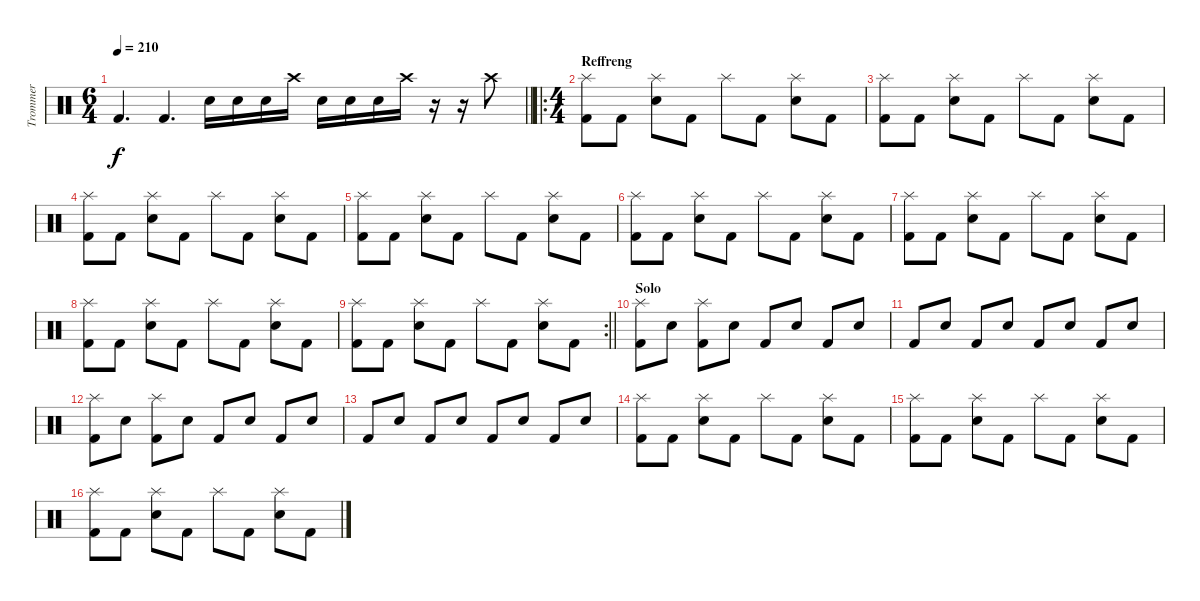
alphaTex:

\track ("Trommer" "Trommer") {instrument percussion}
\staff {score}
\articulation defaults
\ts (6 4)
\tempo 210
\clef neutral
\barLineRight lightlight
\ks c "Kick (hit) 2".4{d dy f} "Kick (hit) 2".4{d} "Snare (hit) 2".16 "Snare (hit) 2".16 "Snare (hit) 2".16 "Crash high (hit)".16 "Snare (hit) 2".16 "Snare (hit) 2".16 "Snare (hit) 2".16 "Crash high (hit)".16
r.16 r.16 "Crash high (hit)".8 |
\ro
\ts (4 4)
\section ("" "Reffreng")
("Splash (hit)" "Kick (hit) 2").8 "Kick (hit) 2".8 ("Splash (hit)" "Snare (hit) 2").8 "Kick (hit) 2".8 "Splash (hit)".8 "Kick (hit) 2".8 ("Splash (hit)" "Snare (hit) 2").8 "Kick (hit) 2".8 |
("Splash (hit)" "Kick (hit) 2").8 "Kick (hit) 2".8 ("Splash (hit)" "Snare (hit) 2").8 "Kick (hit) 2".8 "Splash (hit)".8 "Kick (hit) 2".8 ("Splash (hit)" "Snare (hit) 2").8 "Kick (hit) 2".8 |
("Splash (hit)" "Kick (hit) 2").8 "Kick (hit) 2".8 ("Splash (hit)" "Snare (hit) 2").8 "Kick (hit) 2".8 "Splash (hit)".8 "Kick (hit) 2".8 ("Splash (hit)" "Snare (hit) 2").8 "Kick (hit) 2".8 |
("Splash (hit)" "Kick (hit) 2").8 "Kick (hit) 2".8 ("Splash (hit)" "Snare (hit) 2").8 "Kick (hit) 2".8 "Splash (hit)".8 "Kick (hit) 2".8 ("Splash (hit)" "Snare (hit) 2").8 "Kick (hit) 2".8 |
("Splash (hit)" "Kick (hit) 2").8 "Kick (hit) 2".8 ("Splash (hit)" "Snare (hit) 2").8 "Kick (hit) 2".8 "Splash (hit)".8 "Kick (hit) 2".8 ("Splash (hit)" "Snare (hit) 2").8 "Kick (hit) 2".8 |
("Splash (hit)" "Kick (hit) 2").8 "Kick (hit) 2".8 ("Splash (hit)" "Snare (hit) 2").8 "Kick (hit) 2".8 "Splash (hit)".8 "Kick (hit) 2".8 ("Splash (hit)" "Snare (hit) 2").8 "Kick (hit) 2".8 |
("Splash (hit)" "Kick (hit) 2").8 "Kick (hit) 2".8 ("Splash (hit)" "Snare (hit) 2").8 "Kick (hit) 2".8 "Splash (hit)".8 "Kick (hit) 2".8 ("Splash (hit)" "Snare (hit) 2").8 "Kick (hit) 2".8 |
\rc 2
\barLineRight lightlight
("Splash (hit)" "Kick (hit) 2").8 "Kick (hit) 2".8 ("Splash (hit)" "Snare (hit) 2").8 "Kick (hit) 2".8 "Splash (hit)".8 "Kick (hit) 2".8 ("Splash (hit)" "Snare (hit) 2").8 "Kick (hit) 2".8 |
\section ("" "Solo")
("Splash (hit)" "Kick (hit) 2").8 "Snare (hit) 2".8 ("Splash (hit)" "Kick (hit) 2").8 "Snare (hit) 2".8 "Kick (hit) 2".8 "Snare (hit) 2".8 "Kick (hit) 2".8 "Snare (hit) 2".8 |
"Kick (hit) 2".8 "Snare (hit) 2".8 "Kick (hit) 2".8 "Snare (hit) 2".8 "Kick (hit) 2".8 "Snare (hit) 2".8 "Kick (hit) 2".8 "Snare (hit) 2".8 |
("Splash (hit)" "Kick (hit) 2").8 "Snare (hit) 2".8 ("Splash (hit)" "Kick (hit) 2").8 "Snare (hit) 2".8 "Kick (hit) 2".8 "Snare (hit) 2".8 "Kick (hit) 2".8 "Snare (hit) 2".8 |
"Kick (hit) 2".8 "Snare (hit) 2".8 "Kick (hit) 2".8 "Snare (hit) 2".8 "Kick (hit) 2".8 "Snare (hit) 2".8 "Kick (hit) 2".8 "Snare (hit) 2".8 |
("Splash (hit)" "Kick (hit) 2").8 "Kick (hit) 2".8 ("Splash (hit)" "Snare (hit) 2").8 "Kick (hit) 2".8 "Splash (hit)".8 "Kick (hit) 2".8 ("Splash (hit)" "Snare (hit) 2").8 "Kick (hit) 2".8 |
("Splash (hit)" "Kick (hit) 2").8 "Kick (hit) 2".8 ("Splash (hit)" "Snare (hit) 2").8 "Kick (hit) 2".8 "Splash (hit)".8 "Kick (hit) 2".8 ("Splash (hit)" "Snare (hit) 2").8 "Kick (hit) 2".8 |
("Splash (hit)" "Kick (hit) 2").8 "Kick (hit) 2".8 ("Splash (hit)" "Snare (hit) 2").8 "Kick (hit) 2".8 "Splash (hit)".8 "Kick (hit) 2".8 ("Splash (hit)" "Snare (hit) 2").8 "Kick (hit) 2".8
